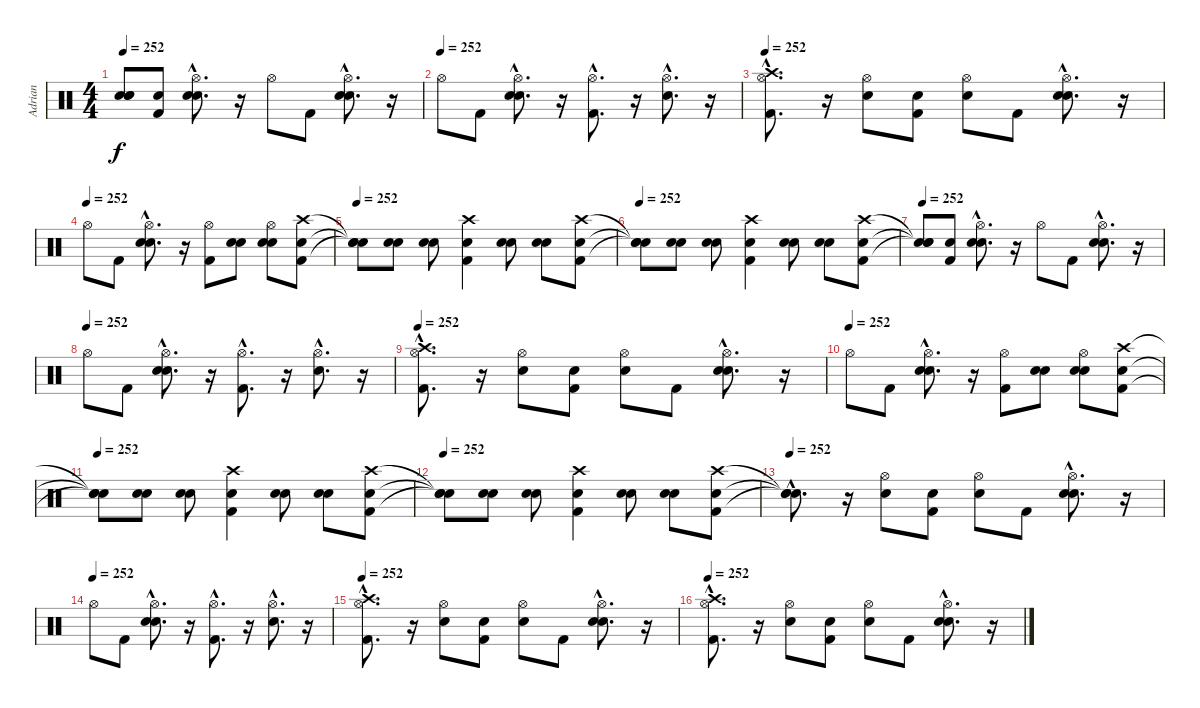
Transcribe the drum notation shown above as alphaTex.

\track ("Adrian" "Adrian") {instrument percussion}
\staff {score}
\articulation defaults
\ts (4 4)
\tempo 252
\clef neutral
\ks c
("Snare (hit)"{t} "Snare (hit)"{t} "Snare (hit)"{t}).8{dy f} ("Snare (hit)" "Kick (hit) 2").8 ("Snare (hit)"{hac} "Snare (hit) 2"{hac} "Hi-Hat (open)"{hac}).8{d} r.16 "Hi-Hat (open)".8 "Kick (hit) 2".8 ("Snare (hit)"{hac} "Snare (hit) 2"{hac} "Hi-Hat (open)"{hac}).8{d} r.16 |
\tempo (252)
"Hi-Hat (open)".8 "Kick (hit) 2".8 ("Snare (hit)"{hac} "Snare (hit) 2"{hac} "Hi-Hat (open)"{hac}).8{d} r.16 ("Kick (hit) 2"{hac} "Hi-Hat (open)"{hac}).8{d} r.16 ("Snare (hit) 2"{hac} "Hi-Hat (open)"{hac}).8{d} r.16 |
\tempo 252
("Kick (hit) 2"{hac} "Hi-Hat (open)"{hac} "Crash high (hit)"{hac}).8{d} r.16 ("Snare (hit) 2" "Hi-Hat (open)").8 ("Snare (hit)" "Kick (hit) 2").8 ("Snare (hit)" "Hi-Hat (open)").8 "Kick (hit) 2".8 ("Snare (hit)"{hac} "Snare (hit) 2"{hac} "Hi-Hat (open)"{hac}).8{d} r.16 |
\tempo (252)
"Hi-Hat (open)".8 "Kick (hit) 2".8 ("Snare (hit)"{hac} "Snare (hit) 2"{hac} "Hi-Hat (open)"{hac}).8{d} r.16 ("Kick (hit) 2" "Hi-Hat (open)").8 ("Snare (hit)" "Snare (hit) 2").8 ("Snare (hit)" "Snare (hit) 2" "Hi-Hat (open)").8 ("Snare (hit)" "Kick (hit) 2" "Crash high (hit)").8 |
\tempo 252
("Snare (hit)"{t} "Snare (hit)"{t} "Snare (hit)"{t}).8 ("Snare (hit)" "Snare (hit) 2").8 ("Snare (hit)" "Snare (hit) 2").8 ("Snare (hit)" "Kick (hit) 2" "Crash high (hit)").4 ("Snare (hit)" "Snare (hit) 2").8 ("Snare (hit)" "Snare (hit) 2").8 ("Snare (hit)" "Kick (hit) 2" "Crash high (hit)").8 |
\tempo 252
("Snare (hit)"{t} "Snare (hit)"{t} "Snare (hit)"{t}).8 ("Snare (hit)" "Snare (hit) 2").8 ("Snare (hit)" "Snare (hit) 2").8 ("Snare (hit)" "Kick (hit) 2" "Crash high (hit)").4 ("Snare (hit)" "Snare (hit) 2").8 ("Snare (hit)" "Snare (hit) 2").8 ("Snare (hit)" "Kick (hit) 2" "Crash high (hit)").8 |
\tempo 252
("Snare (hit)"{t} "Snare (hit)"{t} "Snare (hit)"{t}).8 ("Snare (hit)" "Kick (hit) 2").8 ("Snare (hit)"{hac} "Snare (hit) 2"{hac} "Hi-Hat (open)"{hac}).8{d} r.16 "Hi-Hat (open)".8 "Kick (hit) 2".8 ("Snare (hit)"{hac} "Snare (hit) 2"{hac} "Hi-Hat (open)"{hac}).8{d} r.16 |
\tempo (252)
"Hi-Hat (open)".8 "Kick (hit) 2".8 ("Snare (hit)"{hac} "Snare (hit) 2"{hac} "Hi-Hat (open)"{hac}).8{d} r.16 ("Kick (hit) 2"{hac} "Hi-Hat (open)"{hac}).8{d} r.16 ("Snare (hit) 2"{hac} "Hi-Hat (open)"{hac}).8{d} r.16 |
\tempo 252
("Kick (hit) 2"{hac} "Hi-Hat (open)"{hac} "Crash high (hit)"{hac}).8{d} r.16 ("Snare (hit) 2" "Hi-Hat (open)").8 ("Snare (hit)" "Kick (hit) 2").8 ("Snare (hit)" "Hi-Hat (open)").8 "Kick (hit) 2".8 ("Snare (hit)"{hac} "Snare (hit) 2"{hac} "Hi-Hat (open)"{hac}).8{d} r.16 |
\tempo (252)
"Hi-Hat (open)".8 "Kick (hit) 2".8 ("Snare (hit)"{hac} "Snare (hit) 2"{hac} "Hi-Hat (open)"{hac}).8{d} r.16 ("Kick (hit) 2" "Hi-Hat (open)").8 ("Snare (hit)" "Snare (hit) 2").8 ("Snare (hit)" "Snare (hit) 2" "Hi-Hat (open)").8 ("Snare (hit)" "Kick (hit) 2" "Crash high (hit)").8 |
\tempo 252
("Snare (hit)"{t} "Snare (hit)"{t} "Snare (hit)"{t}).8 ("Snare (hit)" "Snare (hit) 2").8 ("Snare (hit)" "Snare (hit) 2").8 ("Snare (hit)" "Kick (hit) 2" "Crash high (hit)").4 ("Snare (hit)" "Snare (hit) 2").8 ("Snare (hit)" "Snare (hit) 2").8 ("Snare (hit)" "Kick (hit) 2" "Crash high (hit)").8 |
\tempo 252
("Snare (hit)"{t} "Snare (hit)"{t} "Snare (hit)"{t}).8 ("Snare (hit)" "Snare (hit) 2").8 ("Snare (hit)" "Snare (hit) 2").8 ("Snare (hit)" "Kick (hit) 2" "Crash high (hit)").4 ("Snare (hit)" "Snare (hit) 2").8 ("Snare (hit)" "Snare (hit) 2").8 ("Snare (hit)" "Kick (hit) 2" "Crash high (hit)").8 |
\tempo 252
("Snare (hit)"{hac t} "Snare (hit)"{hac t} "Snare (hit)"{hac t}).8{d} r.16 ("Snare (hit) 2" "Hi-Hat (open)").8 ("Snare (hit)" "Kick (hit) 2").8 ("Snare (hit)" "Hi-Hat (open)").8 "Kick (hit) 2".8 ("Snare (hit)"{hac} "Snare (hit) 2"{hac} "Hi-Hat (open)"{hac}).8{d} r.16 |
\tempo (252)
"Hi-Hat (open)".8 "Kick (hit) 2".8 ("Snare (hit)"{hac} "Snare (hit) 2"{hac} "Hi-Hat (open)"{hac}).8{d} r.16 ("Kick (hit) 2"{hac} "Hi-Hat (open)"{hac}).8{d} r.16 ("Snare (hit) 2"{hac} "Hi-Hat (open)"{hac}).8{d} r.16 |
\tempo 252
("Kick (hit) 2"{hac} "Hi-Hat (open)"{hac} "Crash high (hit)"{hac}).8{d} r.16 ("Snare (hit) 2" "Hi-Hat (open)").8 ("Snare (hit)" "Kick (hit) 2").8 ("Snare (hit)" "Hi-Hat (open)").8 "Kick (hit) 2".8 ("Snare (hit)"{hac} "Snare (hit) 2"{hac} "Hi-Hat (open)"{hac}).8{d} r.16 |
\tempo 252
("Kick (hit) 2"{hac} "Hi-Hat (open)"{hac} "Crash high (hit)"{hac}).8{d} r.16 ("Snare (hit) 2" "Hi-Hat (open)").8 ("Snare (hit)" "Kick (hit) 2").8 ("Snare (hit)" "Hi-Hat (open)").8 "Kick (hit) 2".8 ("Snare (hit)"{hac} "Snare (hit) 2"{hac} "Hi-Hat (open)"{hac}).8{d} r.16
